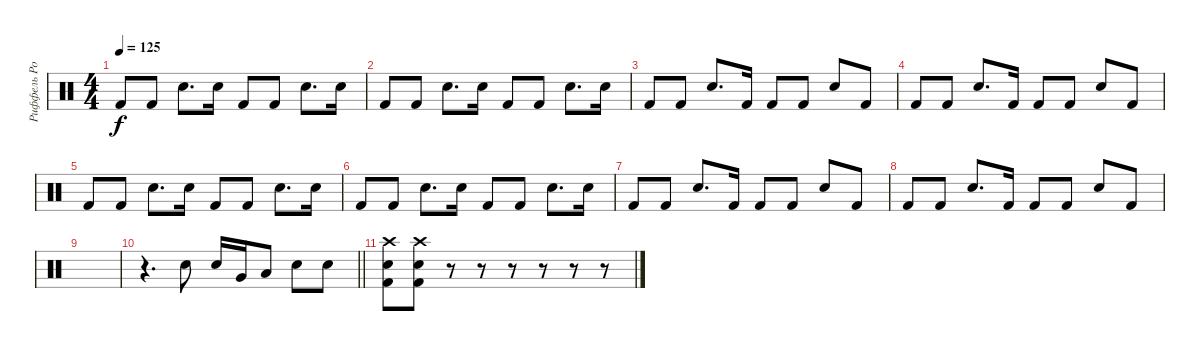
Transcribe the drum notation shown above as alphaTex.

\track ("Риффель Роман(главные)" "Риффель Ро") {instrument percussion}
\staff {score}
\articulation defaults
\ts (4 4)
\tempo 125
\clef neutral
\ks c "Kick (hit) 2".8{dy f} "Kick (hit) 2".8 "Electric Snare (hit)".8{d} "Electric Snare (hit)".16 "Kick (hit) 2".8 "Kick (hit) 2".8 "Electric Snare (hit)".8{d} "Electric Snare (hit)".16
|
"Kick (hit) 2".8 "Kick (hit) 2".8 "Electric Snare (hit)".8{d} "Electric Snare (hit)".16 "Kick (hit) 2".8 "Kick (hit) 2".8 "Electric Snare (hit)".8{d} "Electric Snare (hit)".16 |
"Kick (hit) 2".8 "Kick (hit) 2".8 "Electric Snare (hit)".8{d} "Kick (hit) 2".16 "Kick (hit) 2".8 "Kick (hit) 2".8 "Electric Snare (hit)".8 "Kick (hit) 2".8 |
"Kick (hit) 2".8 "Kick (hit) 2".8 "Electric Snare (hit)".8{d} "Kick (hit) 2".16 "Kick (hit) 2".8 "Kick (hit) 2".8 "Electric Snare (hit)".8 "Kick (hit) 2".8 |
"Kick (hit) 2".8 "Kick (hit) 2".8 "Electric Snare (hit)".8{d} "Electric Snare (hit)".16 "Kick (hit) 2".8 "Kick (hit) 2".8 "Electric Snare (hit)".8{d} "Electric Snare (hit)".16 |
"Kick (hit) 2".8 "Kick (hit) 2".8 "Electric Snare (hit)".8{d} "Electric Snare (hit)".16 "Kick (hit) 2".8 "Kick (hit) 2".8 "Electric Snare (hit)".8{d} "Electric Snare (hit)".16 |
"Kick (hit) 2".8 "Kick (hit) 2".8 "Electric Snare (hit)".8{d} "Kick (hit) 2".16 "Kick (hit) 2".8 "Kick (hit) 2".8 "Electric Snare (hit)".8 "Kick (hit) 2".8 |
"Kick (hit) 2".8 "Kick (hit) 2".8 "Electric Snare (hit)".8{d} "Kick (hit) 2".16 "Kick (hit) 2".8 "Kick (hit) 2".8 "Electric Snare (hit)".8 "Kick (hit) 2".8 |
|
\barLineRight lightlight
r.4{d} "Electric Snare (hit)".8 "Electric Snare (hit)".16 "Very Low Tom (hit)".16 "Low Floor Tom (hit)".8 "Electric Snare (hit)".8 "Electric Snare (hit)".8 |
("Kick (hit) 2" "Electric Snare (hit)" "Crash high (hit)").8 ("Kick (hit) 2" "Electric Snare (hit)" "Crash high (hit)").8 r.8 r.8 r.8 r.8 r.8 r.8
